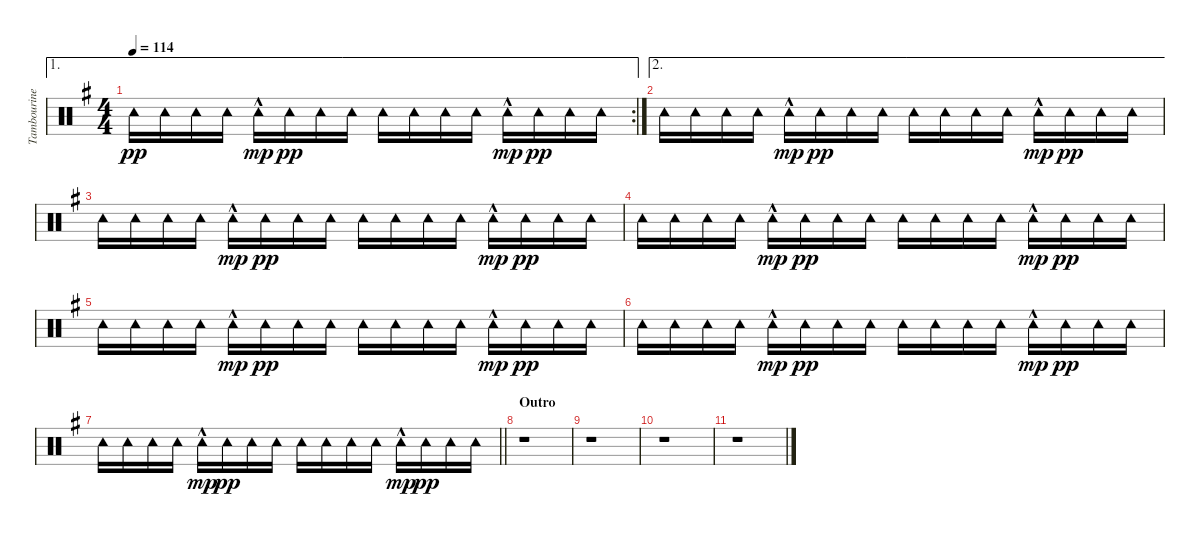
\track ("Tambourine" "Tambourine") {instrument percussion}
\staff {score}
\articulation defaults
\ae 1
\rc 2
\ts (4 4)
\tempo 114
\clef neutral
\ks g "Tambourine (hit)".16{dy pp} "Tambourine (hit)".16 "Tambourine (hit)".16 "Tambourine (hit)".16 "Tambourine (hit)"{hac}.16{dy mp} "Tambourine (hit)".16{dy pp} "Tambourine (hit)".16 "Tambourine (hit)".16 "Tambourine (hit)".16 "Tambourine (hit)".16 "Tambourine (hit)".16 "Tambourine (hit)".16 "Tambourine (hit)"{hac}.16{dy mp} "Tambourine (hit)".16{dy pp} "Tambourine (hit)".16 "Tambourine (hit)".16
|
\ae 2 "Tambourine (hit)".16 "Tambourine (hit)".16 "Tambourine (hit)".16 "Tambourine (hit)".16 "Tambourine (hit)"{hac}.16{dy mp} "Tambourine (hit)".16{dy pp} "Tambourine (hit)".16 "Tambourine (hit)".16 "Tambourine (hit)".16 "Tambourine (hit)".16 "Tambourine (hit)".16 "Tambourine (hit)".16 "Tambourine (hit)"{hac}.16{dy mp} "Tambourine (hit)".16{dy pp} "Tambourine (hit)".16 "Tambourine (hit)".16
|
"Tambourine (hit)".16 "Tambourine (hit)".16 "Tambourine (hit)".16 "Tambourine (hit)".16 "Tambourine (hit)"{hac}.16{dy mp} "Tambourine (hit)".16{dy pp} "Tambourine (hit)".16 "Tambourine (hit)".16 "Tambourine (hit)".16 "Tambourine (hit)".16 "Tambourine (hit)".16 "Tambourine (hit)".16 "Tambourine (hit)"{hac}.16{dy mp} "Tambourine (hit)".16{dy pp} "Tambourine (hit)".16 "Tambourine (hit)".16 |
"Tambourine (hit)".16 "Tambourine (hit)".16 "Tambourine (hit)".16 "Tambourine (hit)".16 "Tambourine (hit)"{hac}.16{dy mp} "Tambourine (hit)".16{dy pp} "Tambourine (hit)".16 "Tambourine (hit)".16 "Tambourine (hit)".16 "Tambourine (hit)".16 "Tambourine (hit)".16 "Tambourine (hit)".16 "Tambourine (hit)"{hac}.16{dy mp} "Tambourine (hit)".16{dy pp} "Tambourine (hit)".16 "Tambourine (hit)".16 |
"Tambourine (hit)".16 "Tambourine (hit)".16 "Tambourine (hit)".16 "Tambourine (hit)".16 "Tambourine (hit)"{hac}.16{dy mp} "Tambourine (hit)".16{dy pp} "Tambourine (hit)".16 "Tambourine (hit)".16 "Tambourine (hit)".16 "Tambourine (hit)".16 "Tambourine (hit)".16 "Tambourine (hit)".16 "Tambourine (hit)"{hac}.16{dy mp} "Tambourine (hit)".16{dy pp} "Tambourine (hit)".16 "Tambourine (hit)".16 |
"Tambourine (hit)".16 "Tambourine (hit)".16 "Tambourine (hit)".16 "Tambourine (hit)".16 "Tambourine (hit)"{hac}.16{dy mp} "Tambourine (hit)".16{dy pp} "Tambourine (hit)".16 "Tambourine (hit)".16 "Tambourine (hit)".16 "Tambourine (hit)".16 "Tambourine (hit)".16 "Tambourine (hit)".16 "Tambourine (hit)"{hac}.16{dy mp} "Tambourine (hit)".16{dy pp} "Tambourine (hit)".16 "Tambourine (hit)".16 |
\barLineRight lightlight "Tambourine (hit)".16 "Tambourine (hit)".16 "Tambourine (hit)".16 "Tambourine (hit)".16 "Tambourine (hit)"{hac}.16{dy mp} "Tambourine (hit)".16{dy pp} "Tambourine (hit)".16 "Tambourine (hit)".16 "Tambourine (hit)".16 "Tambourine (hit)".16 "Tambourine (hit)".16 "Tambourine (hit)".16 "Tambourine (hit)"{hac}.16{dy mp} "Tambourine (hit)".16{dy pp} "Tambourine (hit)".16 "Tambourine (hit)".16
|
\section ("" "Outro")
r.1 |
r.1 |
r.1 |
r.1
